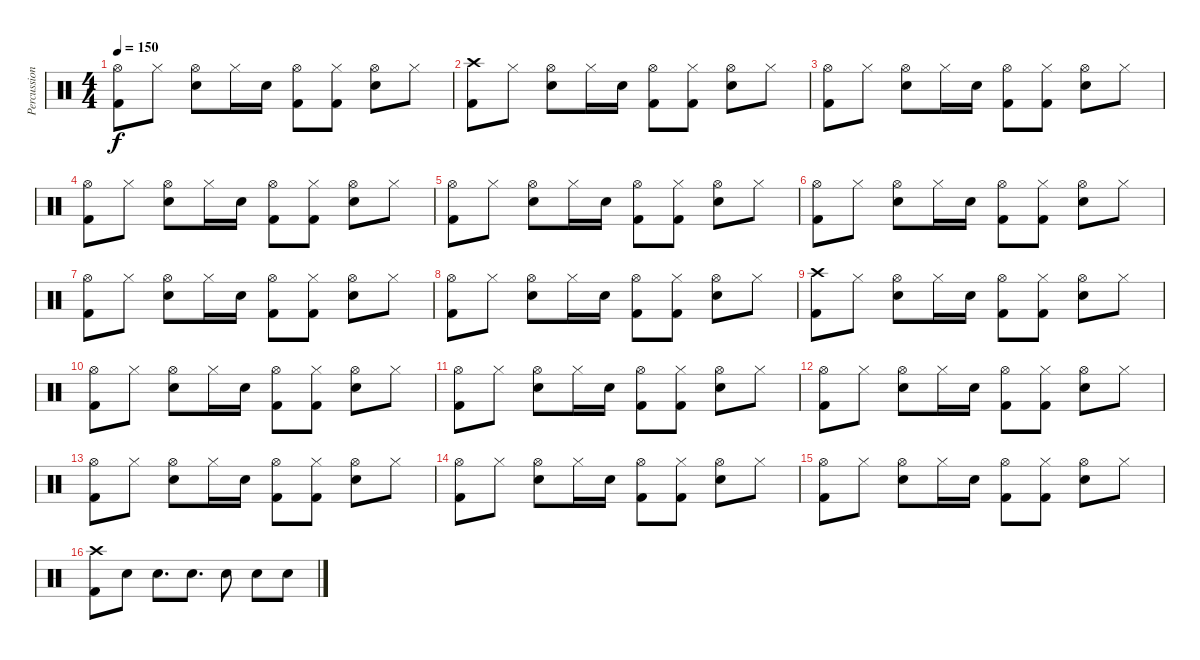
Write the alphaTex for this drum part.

\track ("Percussion" "Percussion") {instrument percussion}
\staff {score}
\articulation defaults
\ts (4 4)
\tempo 150
\clef neutral
\ks c
("Hi-Hat (open)" "Kick (hit) 2").8{dy f} "Hi-Hat (closed)".8 ("Hi-Hat (open)" "Electric Snare (hit)").8 "Hi-Hat (closed)".16 "Electric Snare (hit)".16 ("Hi-Hat (open)" "Kick (hit) 2").8 ("Hi-Hat (closed)" "Kick (hit) 2").8 ("Hi-Hat (open)" "Electric Snare (hit)").8 "Hi-Hat (closed)".8 |
("Crash high (hit)" "Kick (hit) 2").8 "Hi-Hat (closed)".8 ("Hi-Hat (open)" "Electric Snare (hit)").8 "Hi-Hat (closed)".16 "Electric Snare (hit)".16 ("Hi-Hat (open)" "Kick (hit) 2").8 ("Hi-Hat (closed)" "Kick (hit) 2").8 ("Hi-Hat (open)" "Electric Snare (hit)").8 "Hi-Hat (closed)".8 |
("Hi-Hat (open)" "Kick (hit) 2").8 "Hi-Hat (closed)".8 ("Hi-Hat (open)" "Electric Snare (hit)").8 "Hi-Hat (closed)".16 "Electric Snare (hit)".16 ("Hi-Hat (open)" "Kick (hit) 2").8 ("Hi-Hat (closed)" "Kick (hit) 2").8 ("Hi-Hat (open)" "Electric Snare (hit)").8 "Hi-Hat (closed)".8 |
("Hi-Hat (open)" "Kick (hit) 2").8 "Hi-Hat (closed)".8 ("Hi-Hat (open)" "Electric Snare (hit)").8 "Hi-Hat (closed)".16 "Electric Snare (hit)".16 ("Hi-Hat (open)" "Kick (hit) 2").8 ("Hi-Hat (closed)" "Kick (hit) 2").8 ("Hi-Hat (open)" "Electric Snare (hit)").8 "Hi-Hat (closed)".8 |
("Hi-Hat (open)" "Kick (hit) 2").8 "Hi-Hat (closed)".8 ("Hi-Hat (open)" "Electric Snare (hit)").8 "Hi-Hat (closed)".16 "Electric Snare (hit)".16 ("Hi-Hat (open)" "Kick (hit) 2").8 ("Hi-Hat (closed)" "Kick (hit) 2").8 ("Hi-Hat (open)" "Electric Snare (hit)").8 "Hi-Hat (closed)".8 |
("Hi-Hat (open)" "Kick (hit) 2").8 "Hi-Hat (closed)".8 ("Hi-Hat (open)" "Electric Snare (hit)").8 "Hi-Hat (closed)".16 "Electric Snare (hit)".16 ("Hi-Hat (open)" "Kick (hit) 2").8 ("Hi-Hat (closed)" "Kick (hit) 2").8 ("Hi-Hat (open)" "Electric Snare (hit)").8 "Hi-Hat (closed)".8 |
("Hi-Hat (open)" "Kick (hit) 2").8 "Hi-Hat (closed)".8 ("Hi-Hat (open)" "Electric Snare (hit)").8 "Hi-Hat (closed)".16 "Electric Snare (hit)".16 ("Hi-Hat (open)" "Kick (hit) 2").8 ("Hi-Hat (closed)" "Kick (hit) 2").8 ("Hi-Hat (open)" "Electric Snare (hit)").8 "Hi-Hat (closed)".8 |
("Hi-Hat (open)" "Kick (hit) 2").8 "Hi-Hat (closed)".8 ("Hi-Hat (open)" "Electric Snare (hit)").8 "Hi-Hat (closed)".16 "Electric Snare (hit)".16 ("Hi-Hat (open)" "Kick (hit) 2").8 ("Hi-Hat (closed)" "Kick (hit) 2").8 ("Hi-Hat (open)" "Electric Snare (hit)").8 "Hi-Hat (closed)".8 |
("Crash high (hit)" "Kick (hit) 2").8 "Hi-Hat (closed)".8 ("Hi-Hat (open)" "Electric Snare (hit)").8 "Hi-Hat (closed)".16 "Electric Snare (hit)".16 ("Hi-Hat (open)" "Kick (hit) 2").8 ("Hi-Hat (closed)" "Kick (hit) 2").8 ("Hi-Hat (open)" "Electric Snare (hit)").8 "Hi-Hat (closed)".8 |
("Hi-Hat (open)" "Kick (hit) 2").8 "Hi-Hat (closed)".8 ("Hi-Hat (open)" "Electric Snare (hit)").8 "Hi-Hat (closed)".16 "Electric Snare (hit)".16 ("Hi-Hat (open)" "Kick (hit) 2").8 ("Hi-Hat (closed)" "Kick (hit) 2").8 ("Hi-Hat (open)" "Electric Snare (hit)").8 "Hi-Hat (closed)".8 |
("Hi-Hat (open)" "Kick (hit) 2").8 "Hi-Hat (closed)".8 ("Hi-Hat (open)" "Electric Snare (hit)").8 "Hi-Hat (closed)".16 "Electric Snare (hit)".16 ("Hi-Hat (open)" "Kick (hit) 2").8 ("Hi-Hat (closed)" "Kick (hit) 2").8 ("Hi-Hat (open)" "Electric Snare (hit)").8 "Hi-Hat (closed)".8 |
("Hi-Hat (open)" "Kick (hit) 2").8 "Hi-Hat (closed)".8 ("Hi-Hat (open)" "Electric Snare (hit)").8 "Hi-Hat (closed)".16 "Electric Snare (hit)".16 ("Hi-Hat (open)" "Kick (hit) 2").8 ("Hi-Hat (closed)" "Kick (hit) 2").8 ("Hi-Hat (open)" "Electric Snare (hit)").8 "Hi-Hat (closed)".8 |
("Hi-Hat (open)" "Kick (hit) 2").8 "Hi-Hat (closed)".8 ("Hi-Hat (open)" "Electric Snare (hit)").8 "Hi-Hat (closed)".16 "Electric Snare (hit)".16 ("Hi-Hat (open)" "Kick (hit) 2").8 ("Hi-Hat (closed)" "Kick (hit) 2").8 ("Hi-Hat (open)" "Electric Snare (hit)").8 "Hi-Hat (closed)".8 |
("Hi-Hat (open)" "Kick (hit) 2").8 "Hi-Hat (closed)".8 ("Hi-Hat (open)" "Electric Snare (hit)").8 "Hi-Hat (closed)".16 "Electric Snare (hit)".16 ("Hi-Hat (open)" "Kick (hit) 2").8 ("Hi-Hat (closed)" "Kick (hit) 2").8 ("Hi-Hat (open)" "Electric Snare (hit)").8 "Hi-Hat (closed)".8 |
("Hi-Hat (open)" "Kick (hit) 2").8 "Hi-Hat (closed)".8 ("Hi-Hat (open)" "Electric Snare (hit)").8 "Hi-Hat (closed)".16 "Electric Snare (hit)".16 ("Hi-Hat (open)" "Kick (hit) 2").8 ("Hi-Hat (closed)" "Kick (hit) 2").8 ("Hi-Hat (open)" "Electric Snare (hit)").8 "Hi-Hat (closed)".8 |
("Crash high (hit)" "Kick (hit) 2").8 "Electric Snare (hit)".8 "Electric Snare (hit)".8{d} "Electric Snare (hit)".8{d} "Electric Snare (hit)".8 "Electric Snare (hit)".8 "Electric Snare (hit)".8
